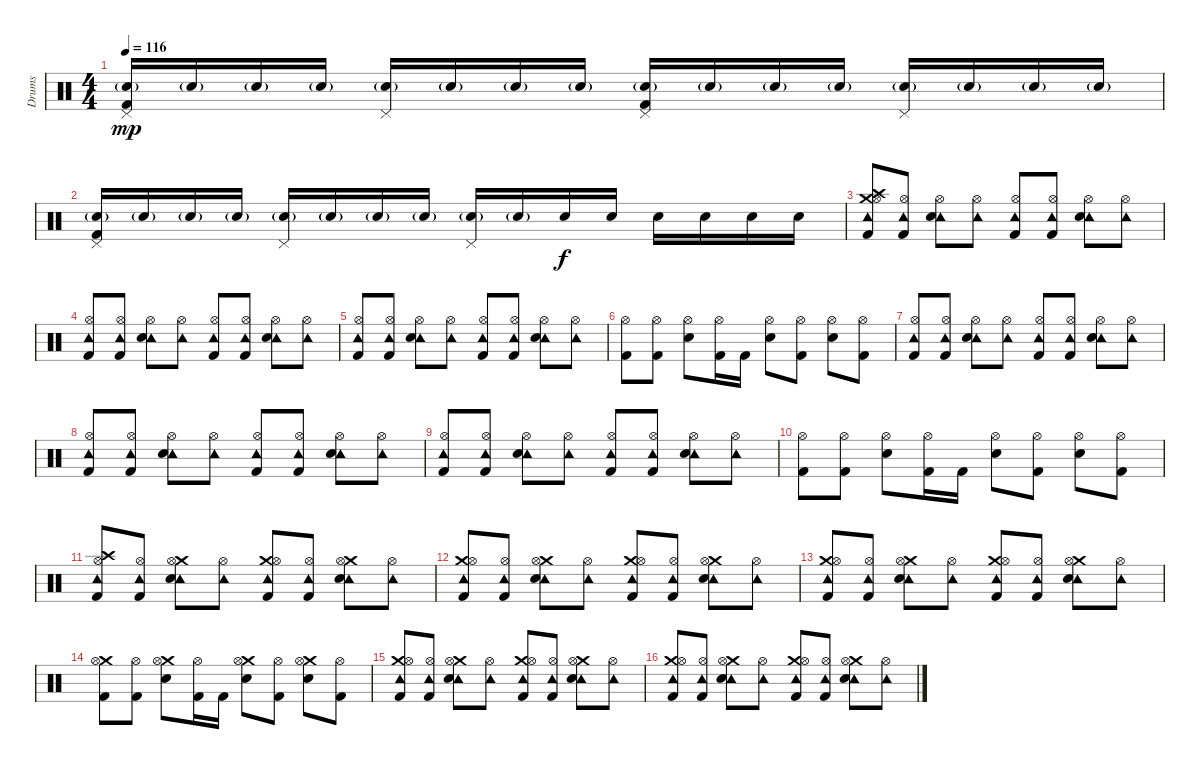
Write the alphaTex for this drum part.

\track ("Drums" "Drums") {instrument percussion}
\staff {score}
\articulation defaults
\ts (4 4)
\tempo 116
\clef neutral
\ks c
("Pedal Hi-Hat (hit)" "Kick (hit) 2" "Snare (hit) 2"{g}).16{dy mp} "Snare (hit) 2"{g}.16 "Snare (hit) 2"{g}.16 "Snare (hit) 2"{g}.16 ("Pedal Hi-Hat (hit)" "Snare (hit) 2"{g}).16 "Snare (hit) 2"{g}.16 "Snare (hit) 2"{g}.16 "Snare (hit) 2"{g}.16 ("Pedal Hi-Hat (hit)" "Kick (hit) 2" "Snare (hit) 2"{g}).16 "Snare (hit) 2"{g}.16 "Snare (hit) 2"{g}.16 "Snare (hit) 2"{g}.16 ("Pedal Hi-Hat (hit)" "Snare (hit) 2"{g}).16 "Snare (hit) 2"{g}.16 "Snare (hit) 2"{g}.16 "Snare (hit) 2"{g}.16 |
("Pedal Hi-Hat (hit)" "Kick (hit) 2" "Snare (hit) 2"{g}).16 "Snare (hit) 2"{g}.16 "Snare (hit) 2"{g}.16 "Snare (hit) 2"{g}.16 ("Pedal Hi-Hat (hit)" "Snare (hit) 2"{g}).16 "Snare (hit) 2"{g}.16 "Snare (hit) 2"{g}.16 "Snare (hit) 2"{g}.16 ("Pedal Hi-Hat (hit)" "Snare (hit) 2"{g}).16 "Snare (hit) 2"{g}.16 "Snare (hit) 2".16{dy f} "Snare (hit) 2".16 "Snare (hit) 2".16 "Snare (hit) 2".16 "Snare (hit) 2".16 "Snare (hit) 2".16 |
("Crash high (hit)" "Crash medium (hit)" "Hi-Hat (open)" "Tambourine (hit)" "Kick (hit) 2").8 ("Hi-Hat (open)" "Tambourine (hit)" "Kick (hit) 2").8 ("Hi-Hat (open)" "Tambourine (hit)" "Snare (hit) 2").8 ("Hi-Hat (open)" "Tambourine (hit)").8 ("Hi-Hat (open)" "Tambourine (hit)" "Kick (hit) 2").8 ("Hi-Hat (open)" "Tambourine (hit)" "Kick (hit) 2").8 ("Hi-Hat (open)" "Tambourine (hit)" "Snare (hit) 2").8 ("Hi-Hat (open)" "Tambourine (hit)").8 |
("Hi-Hat (open)" "Tambourine (hit)" "Kick (hit) 2").8 ("Hi-Hat (open)" "Tambourine (hit)" "Kick (hit) 2").8 ("Hi-Hat (open)" "Tambourine (hit)" "Snare (hit) 2").8 ("Hi-Hat (open)" "Tambourine (hit)").8 ("Hi-Hat (open)" "Tambourine (hit)" "Kick (hit) 2").8 ("Hi-Hat (open)" "Tambourine (hit)" "Kick (hit) 2").8 ("Hi-Hat (open)" "Tambourine (hit)" "Snare (hit) 2").8 ("Hi-Hat (open)" "Tambourine (hit)").8 |
("Hi-Hat (open)" "Tambourine (hit)" "Kick (hit) 2").8 ("Hi-Hat (open)" "Tambourine (hit)" "Kick (hit) 2").8 ("Hi-Hat (open)" "Tambourine (hit)" "Snare (hit) 2").8 ("Hi-Hat (open)" "Tambourine (hit)").8 ("Hi-Hat (open)" "Tambourine (hit)" "Kick (hit) 2").8 ("Hi-Hat (open)" "Tambourine (hit)" "Kick (hit) 2").8 ("Hi-Hat (open)" "Tambourine (hit)" "Snare (hit) 2").8 ("Hi-Hat (open)" "Tambourine (hit)").8 |
("Hi-Hat (open)" "Kick (hit) 2").8 ("Hi-Hat (open)" "Kick (hit) 2").8 ("Hi-Hat (open)" "Snare (hit) 2").8 ("Hi-Hat (open)" "Kick (hit) 2").16 "Kick (hit) 2".16 ("Hi-Hat (open)" "Snare (hit) 2").8 ("Hi-Hat (open)" "Kick (hit) 2").8 ("Hi-Hat (open)" "Snare (hit) 2").8 ("Hi-Hat (open)" "Kick (hit) 2").8 |
("Hi-Hat (open)" "Tambourine (hit)" "Kick (hit) 2").8 ("Hi-Hat (open)" "Tambourine (hit)" "Kick (hit) 2").8 ("Hi-Hat (open)" "Tambourine (hit)" "Snare (hit) 2").8 ("Hi-Hat (open)" "Tambourine (hit)").8 ("Hi-Hat (open)" "Tambourine (hit)" "Kick (hit) 2").8 ("Hi-Hat (open)" "Tambourine (hit)" "Kick (hit) 2").8 ("Hi-Hat (open)" "Tambourine (hit)" "Snare (hit) 2").8 ("Hi-Hat (open)" "Tambourine (hit)").8 |
("Hi-Hat (open)" "Tambourine (hit)" "Kick (hit) 2").8 ("Hi-Hat (open)" "Tambourine (hit)" "Kick (hit) 2").8 ("Hi-Hat (open)" "Tambourine (hit)" "Snare (hit) 2").8 ("Hi-Hat (open)" "Tambourine (hit)").8 ("Hi-Hat (open)" "Tambourine (hit)" "Kick (hit) 2").8 ("Hi-Hat (open)" "Tambourine (hit)" "Kick (hit) 2").8 ("Hi-Hat (open)" "Tambourine (hit)" "Snare (hit) 2").8 ("Hi-Hat (open)" "Tambourine (hit)").8 |
("Hi-Hat (open)" "Tambourine (hit)" "Kick (hit) 2").8 ("Hi-Hat (open)" "Tambourine (hit)" "Kick (hit) 2").8 ("Hi-Hat (open)" "Tambourine (hit)" "Snare (hit) 2").8 ("Hi-Hat (open)" "Tambourine (hit)").8 ("Hi-Hat (open)" "Tambourine (hit)" "Kick (hit) 2").8 ("Hi-Hat (open)" "Tambourine (hit)" "Kick (hit) 2").8 ("Hi-Hat (open)" "Tambourine (hit)" "Snare (hit) 2").8 ("Hi-Hat (open)" "Tambourine (hit)").8 |
("Hi-Hat (open)" "Kick (hit) 2").8 ("Hi-Hat (open)" "Kick (hit) 2").8 ("Hi-Hat (open)" "Snare (hit) 2").8 ("Hi-Hat (open)" "Kick (hit) 2").16 "Kick (hit) 2".16 ("Hi-Hat (open)" "Snare (hit) 2").8 ("Hi-Hat (open)" "Kick (hit) 2").8 ("Hi-Hat (open)" "Snare (hit) 2").8 ("Hi-Hat (open)" "Kick (hit) 2").8 |
("Crash high (hit)" "Hi-Hat (open)" "Tambourine (hit)" "Kick (hit) 2").8 ("Hi-Hat (open)" "Tambourine (hit)" "Kick (hit) 2").8 ("Crash medium (hit)" "Hi-Hat (open)" "Tambourine (hit)" "Snare (hit) 2").8 ("Hi-Hat (open)" "Tambourine (hit)").8 ("Crash medium (hit)" "Hi-Hat (open)" "Tambourine (hit)" "Kick (hit) 2").8 ("Hi-Hat (open)" "Tambourine (hit)" "Kick (hit) 2").8 ("Crash medium (hit)" "Hi-Hat (open)" "Tambourine (hit)" "Snare (hit) 2").8 ("Hi-Hat (open)" "Tambourine (hit)").8 |
("Crash medium (hit)" "Hi-Hat (open)" "Tambourine (hit)" "Kick (hit) 2").8 ("Hi-Hat (open)" "Tambourine (hit)" "Kick (hit) 2").8 ("Crash medium (hit)" "Hi-Hat (open)" "Tambourine (hit)" "Snare (hit) 2").8 ("Hi-Hat (open)" "Tambourine (hit)").8 ("Crash medium (hit)" "Hi-Hat (open)" "Tambourine (hit)" "Kick (hit) 2").8 ("Hi-Hat (open)" "Tambourine (hit)" "Kick (hit) 2").8 ("Crash medium (hit)" "Hi-Hat (open)" "Tambourine (hit)" "Snare (hit) 2").8 ("Hi-Hat (open)" "Tambourine (hit)").8 |
("Crash medium (hit)" "Hi-Hat (open)" "Tambourine (hit)" "Kick (hit) 2").8 ("Hi-Hat (open)" "Tambourine (hit)" "Kick (hit) 2").8 ("Crash medium (hit)" "Hi-Hat (open)" "Tambourine (hit)" "Snare (hit) 2").8 ("Hi-Hat (open)" "Tambourine (hit)").8 ("Crash medium (hit)" "Hi-Hat (open)" "Tambourine (hit)" "Kick (hit) 2").8 ("Hi-Hat (open)" "Tambourine (hit)" "Kick (hit) 2").8 ("Crash medium (hit)" "Hi-Hat (open)" "Tambourine (hit)" "Snare (hit) 2").8 ("Hi-Hat (open)" "Tambourine (hit)").8 |
("Crash medium (hit)" "Hi-Hat (open)" "Kick (hit) 2").8 ("Hi-Hat (open)" "Kick (hit) 2").8 ("Crash medium (hit)" "Hi-Hat (open)" "Snare (hit) 2").8 ("Hi-Hat (open)" "Kick (hit) 2").16 "Kick (hit) 2".16 ("Crash medium (hit)" "Hi-Hat (open)" "Snare (hit) 2").8 ("Hi-Hat (open)" "Kick (hit) 2").8 ("Crash medium (hit)" "Hi-Hat (open)" "Snare (hit) 2").8 ("Hi-Hat (open)" "Kick (hit) 2").8 |
("Crash medium (hit)" "Hi-Hat (open)" "Tambourine (hit)" "Kick (hit) 2").8 ("Hi-Hat (open)" "Tambourine (hit)" "Kick (hit) 2").8 ("Crash medium (hit)" "Hi-Hat (open)" "Tambourine (hit)" "Snare (hit) 2").8 ("Hi-Hat (open)" "Tambourine (hit)").8 ("Crash medium (hit)" "Hi-Hat (open)" "Tambourine (hit)" "Kick (hit) 2").8 ("Hi-Hat (open)" "Tambourine (hit)" "Kick (hit) 2").8 ("Crash medium (hit)" "Hi-Hat (open)" "Tambourine (hit)" "Snare (hit) 2").8 ("Hi-Hat (open)" "Tambourine (hit)").8 |
("Crash medium (hit)" "Hi-Hat (open)" "Tambourine (hit)" "Kick (hit) 2").8 ("Hi-Hat (open)" "Tambourine (hit)" "Kick (hit) 2").8 ("Crash medium (hit)" "Hi-Hat (open)" "Tambourine (hit)" "Snare (hit) 2").8 ("Hi-Hat (open)" "Tambourine (hit)").8 ("Crash medium (hit)" "Hi-Hat (open)" "Tambourine (hit)" "Kick (hit) 2").8 ("Hi-Hat (open)" "Tambourine (hit)" "Kick (hit) 2").8 ("Crash medium (hit)" "Hi-Hat (open)" "Tambourine (hit)" "Snare (hit) 2").8 ("Hi-Hat (open)" "Tambourine (hit)").8
